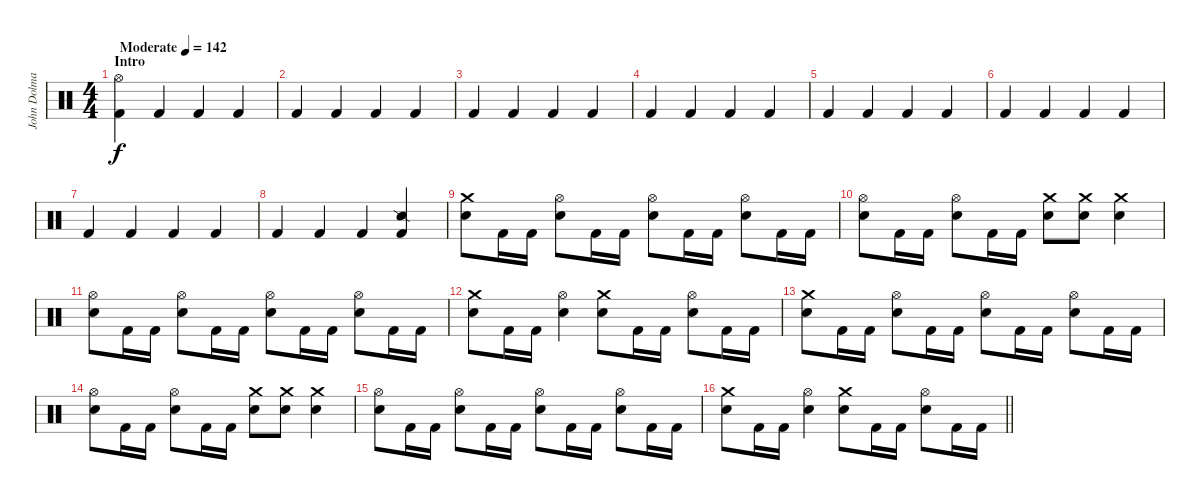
\track ("John Dolmayan" "John Dolma") {instrument percussion}
\staff {score}
\articulation defaults
\ts (4 4)
\section ("" "Intro")
\tempo (142 "Moderate")
\clef neutral
\ks c
("Hi-Hat (open)" "Kick (hit) 2").4{dy f} "Kick (hit) 2".4 "Kick (hit) 2".4 "Kick (hit) 2".4 |
"Kick (hit) 2".4 "Kick (hit) 2".4 "Kick (hit) 2".4 "Kick (hit) 2".4 |
"Kick (hit) 2".4 "Kick (hit) 2".4 "Kick (hit) 2".4 "Kick (hit) 2".4 |
"Kick (hit) 2".4 "Kick (hit) 2".4 "Kick (hit) 2".4 "Kick (hit) 2".4 |
"Kick (hit) 2".4 "Kick (hit) 2".4 "Kick (hit) 2".4 "Kick (hit) 2".4 |
"Kick (hit) 2".4 "Kick (hit) 2".4 "Kick (hit) 2".4 "Kick (hit) 2".4 |
"Kick (hit) 2".4 "Kick (hit) 2".4 "Kick (hit) 2".4 "Kick (hit) 2".4 |
"Kick (hit) 2".4 "Kick (hit) 2".4 "Kick (hit) 2".4 ("Snare (side stick) 2" "Kick (hit) 2").4 |
("Crash medium (hit)" "Electric Snare (hit)").8 "Kick (hit) 2".16 "Kick (hit) 2".16 ("Hi-Hat (open)" "Electric Snare (hit)").8 "Kick (hit) 2".16 "Kick (hit) 2".16 ("Hi-Hat (open)" "Electric Snare (hit)").8 "Kick (hit) 2".16 "Kick (hit) 2".16 ("Hi-Hat (open)" "Electric Snare (hit)").8 "Kick (hit) 2".16 "Kick (hit) 2".16 |
("Hi-Hat (open)" "Electric Snare (hit)").8 "Kick (hit) 2".16 "Kick (hit) 2".16 ("Hi-Hat (open)" "Electric Snare (hit)").8 "Kick (hit) 2".16 "Kick (hit) 2".16 ("Crash medium (hit)" "Electric Snare (hit)").8 ("Crash medium (hit)" "Electric Snare (hit)").8 ("Crash medium (hit)" "Electric Snare (hit)").4 |
("Hi-Hat (open)" "Electric Snare (hit)").8 "Kick (hit) 2".16 "Kick (hit) 2".16 ("Hi-Hat (open)" "Electric Snare (hit)").8 "Kick (hit) 2".16 "Kick (hit) 2".16 ("Hi-Hat (open)" "Electric Snare (hit)").8 "Kick (hit) 2".16 "Kick (hit) 2".16 ("Hi-Hat (open)" "Electric Snare (hit)").8 "Kick (hit) 2".16 "Kick (hit) 2".16 |
("Crash medium (hit)" "Electric Snare (hit)").8 "Kick (hit) 2".16 "Kick (hit) 2".16 ("Hi-Hat (open)" "Electric Snare (hit)").4 ("Crash medium (hit)" "Electric Snare (hit)").8 "Kick (hit) 2".16 "Kick (hit) 2".16 ("Hi-Hat (open)" "Electric Snare (hit)").8 "Kick (hit) 2".16 "Kick (hit) 2".16 |
("Crash medium (hit)" "Electric Snare (hit)").8 "Kick (hit) 2".16 "Kick (hit) 2".16 ("Hi-Hat (open)" "Electric Snare (hit)").8 "Kick (hit) 2".16 "Kick (hit) 2".16 ("Hi-Hat (open)" "Electric Snare (hit)").8 "Kick (hit) 2".16 "Kick (hit) 2".16 ("Hi-Hat (open)" "Electric Snare (hit)").8 "Kick (hit) 2".16 "Kick (hit) 2".16 |
("Hi-Hat (open)" "Electric Snare (hit)").8 "Kick (hit) 2".16 "Kick (hit) 2".16 ("Hi-Hat (open)" "Electric Snare (hit)").8 "Kick (hit) 2".16 "Kick (hit) 2".16 ("Crash medium (hit)" "Electric Snare (hit)").8 ("Crash medium (hit)" "Electric Snare (hit)").8 ("Crash medium (hit)" "Electric Snare (hit)").4 |
("Hi-Hat (open)" "Electric Snare (hit)").8 "Kick (hit) 2".16 "Kick (hit) 2".16 ("Hi-Hat (open)" "Electric Snare (hit)").8 "Kick (hit) 2".16 "Kick (hit) 2".16 ("Hi-Hat (open)" "Electric Snare (hit)").8 "Kick (hit) 2".16 "Kick (hit) 2".16 ("Hi-Hat (open)" "Electric Snare (hit)").8 "Kick (hit) 2".16 "Kick (hit) 2".16 |
\barLineRight lightlight
("Crash medium (hit)" "Electric Snare (hit)").8 "Kick (hit) 2".16 "Kick (hit) 2".16 ("Hi-Hat (open)" "Electric Snare (hit)").4 ("Crash medium (hit)" "Electric Snare (hit)").8 "Kick (hit) 2".16 "Kick (hit) 2".16 ("Hi-Hat (open)" "Electric Snare (hit)").8 "Kick (hit) 2".16 "Kick (hit) 2".16
